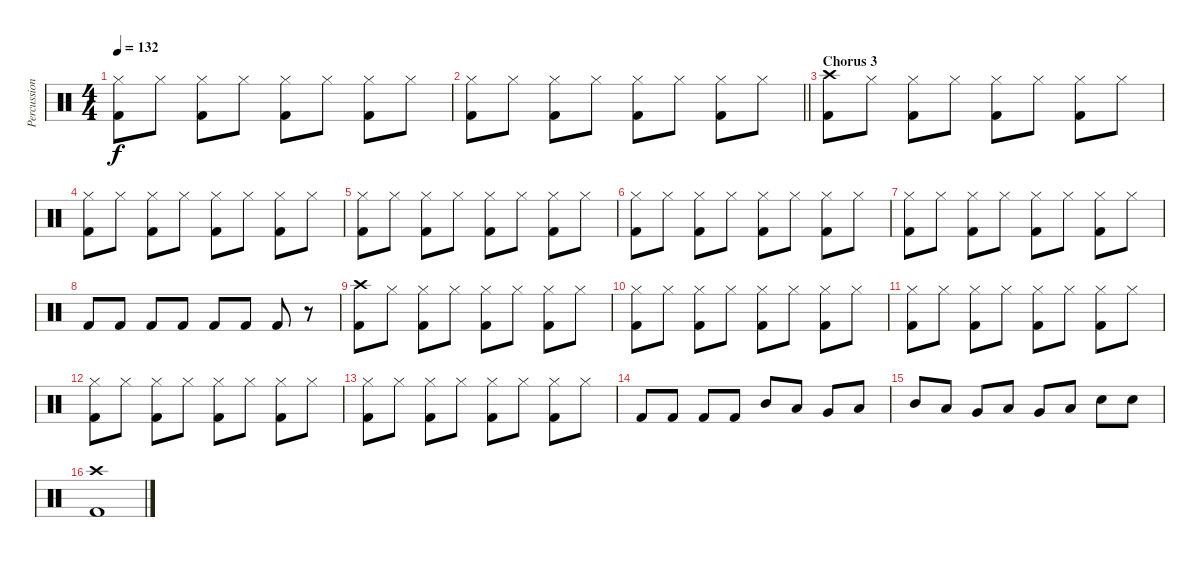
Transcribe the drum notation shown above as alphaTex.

\track ("Percussion" "Percussion") {instrument percussion}
\staff {score}
\articulation defaults
\ts (4 4)
\tempo 132
\clef neutral
\ks c
("Hi-Hat (closed)" "Kick (hit) 2").8{dy f} "Hi-Hat (closed)".8 ("Hi-Hat (closed)" "Kick (hit) 2").8 "Hi-Hat (closed)".8 ("Hi-Hat (closed)" "Kick (hit) 2").8 "Hi-Hat (closed)".8 ("Hi-Hat (closed)" "Kick (hit) 2").8 "Hi-Hat (closed)".8 |
\barLineRight lightlight
("Hi-Hat (closed)" "Kick (hit) 2").8 "Hi-Hat (closed)".8 ("Hi-Hat (closed)" "Kick (hit) 2").8 "Hi-Hat (closed)".8 ("Hi-Hat (closed)" "Kick (hit) 2").8 "Hi-Hat (closed)".8 ("Hi-Hat (closed)" "Kick (hit) 2").8 "Hi-Hat (closed)".8 |
\section ("" "Chorus 3")
("Crash high (hit)" "Kick (hit) 2").8 "Hi-Hat (closed)".8 ("Hi-Hat (closed)" "Kick (hit) 2").8 "Hi-Hat (closed)".8 ("Hi-Hat (closed)" "Kick (hit) 2").8 "Hi-Hat (closed)".8 ("Hi-Hat (closed)" "Kick (hit) 2").8 "Hi-Hat (closed)".8 |
("Hi-Hat (closed)" "Kick (hit) 2").8 "Hi-Hat (closed)".8 ("Hi-Hat (closed)" "Kick (hit) 2").8 "Hi-Hat (closed)".8 ("Hi-Hat (closed)" "Kick (hit) 2").8 "Hi-Hat (closed)".8 ("Hi-Hat (closed)" "Kick (hit) 2").8 "Hi-Hat (closed)".8 |
("Hi-Hat (closed)" "Kick (hit) 2").8 "Hi-Hat (closed)".8 ("Hi-Hat (closed)" "Kick (hit) 2").8 "Hi-Hat (closed)".8 ("Hi-Hat (closed)" "Kick (hit) 2").8 "Hi-Hat (closed)".8 ("Hi-Hat (closed)" "Kick (hit) 2").8 "Hi-Hat (closed)".8 |
("Hi-Hat (closed)" "Kick (hit) 2").8 "Hi-Hat (closed)".8 ("Hi-Hat (closed)" "Kick (hit) 2").8 "Hi-Hat (closed)".8 ("Hi-Hat (closed)" "Kick (hit) 2").8 "Hi-Hat (closed)".8 ("Hi-Hat (closed)" "Kick (hit) 2").8 "Hi-Hat (closed)".8 |
("Hi-Hat (closed)" "Kick (hit) 2").8 "Hi-Hat (closed)".8 ("Hi-Hat (closed)" "Kick (hit) 2").8 "Hi-Hat (closed)".8 ("Hi-Hat (closed)" "Kick (hit) 2").8 "Hi-Hat (closed)".8 ("Hi-Hat (closed)" "Kick (hit) 2").8 "Hi-Hat (closed)".8 |
"Kick (hit) 2".8 "Kick (hit) 2".8 "Kick (hit) 2".8 "Kick (hit) 2".8 "Kick (hit) 2".8 "Kick (hit) 2".8 "Kick (hit) 2".8 r.8 |
("Crash high (hit)" "Kick (hit) 2").8 "Hi-Hat (closed)".8 ("Hi-Hat (closed)" "Kick (hit) 2").8 "Hi-Hat (closed)".8 ("Hi-Hat (closed)" "Kick (hit) 2").8 "Hi-Hat (closed)".8 ("Hi-Hat (closed)" "Kick (hit) 2").8 "Hi-Hat (closed)".8 |
("Hi-Hat (closed)" "Kick (hit) 2").8 "Hi-Hat (closed)".8 ("Hi-Hat (closed)" "Kick (hit) 2").8 "Hi-Hat (closed)".8 ("Hi-Hat (closed)" "Kick (hit) 2").8 "Hi-Hat (closed)".8 ("Hi-Hat (closed)" "Kick (hit) 2").8 "Hi-Hat (closed)".8 |
("Hi-Hat (closed)" "Kick (hit) 2").8 "Hi-Hat (closed)".8 ("Hi-Hat (closed)" "Kick (hit) 2").8 "Hi-Hat (closed)".8 ("Hi-Hat (closed)" "Kick (hit) 2").8 "Hi-Hat (closed)".8 ("Hi-Hat (closed)" "Kick (hit) 2").8 "Hi-Hat (closed)".8 |
("Hi-Hat (closed)" "Kick (hit) 2").8 "Hi-Hat (closed)".8 ("Hi-Hat (closed)" "Kick (hit) 2").8 "Hi-Hat (closed)".8 ("Hi-Hat (closed)" "Kick (hit) 2").8 "Hi-Hat (closed)".8 ("Hi-Hat (closed)" "Kick (hit) 2").8 "Hi-Hat (closed)".8 |
("Hi-Hat (closed)" "Kick (hit) 2").8 "Hi-Hat (closed)".8 ("Hi-Hat (closed)" "Kick (hit) 2").8 "Hi-Hat (closed)".8 ("Hi-Hat (closed)" "Kick (hit) 2").8 "Hi-Hat (closed)".8 ("Hi-Hat (closed)" "Kick (hit) 2").8 "Hi-Hat (closed)".8 |
"Kick (hit) 2".8 "Kick (hit) 2".8 "Kick (hit) 2".8 "Kick (hit) 2".8 "Mid Tom (hit)".8 "Low Tom (hit)".8 "Very Low Tom (hit)".8 "Low Floor Tom (hit)".8 |
"Mid Tom (hit)".8 "Low Tom (hit)".8 "Very Low Tom (hit)".8 "Low Floor Tom (hit)".8 "Very Low Tom (hit)".8 "Low Floor Tom (hit)".8 "Snare (hit) 2".8 "Snare (hit) 2".8 |
("Crash high (hit)" "Kick (hit) 2").1
